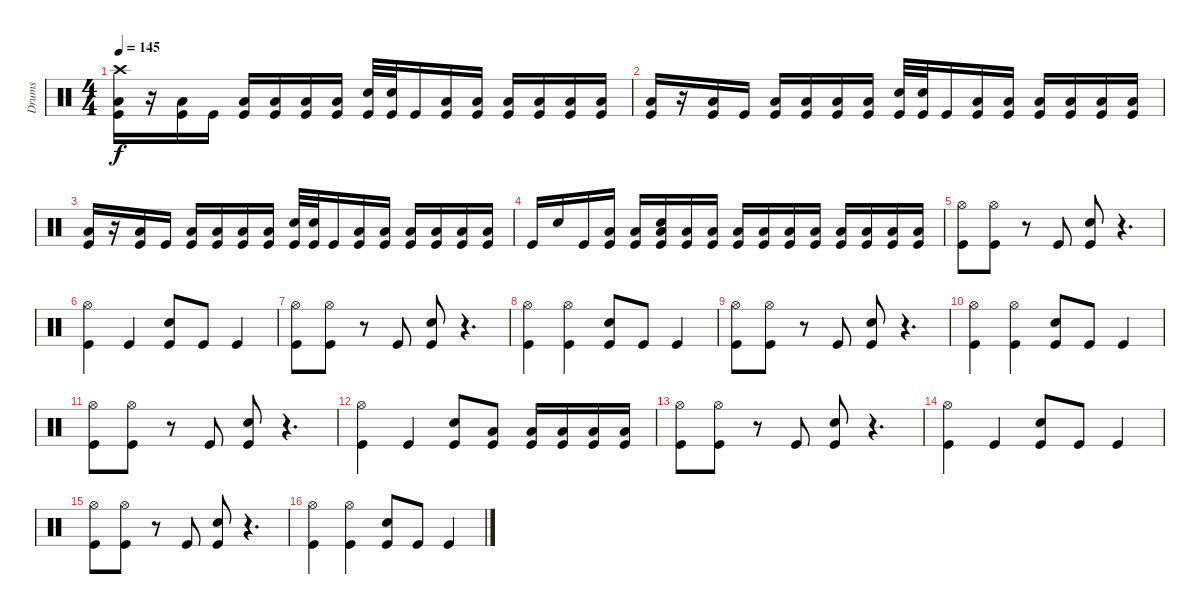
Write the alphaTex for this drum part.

\track ("Drums" "Drums") {instrument percussion}
\staff {score}
\articulation defaults
\ts (4 4)
\tempo 145
\clef neutral
\ks c
("Crash high (hit)" "Low Tom (hit)" "Kick (hit)").16{dy f} r.16 ("Low Tom (hit)" "Kick (hit)").16 "Kick (hit)".16 ("Low Tom (hit)" "Kick (hit)").16 ("Low Tom (hit)" "Kick (hit)").16 ("Low Tom (hit)" "Kick (hit)").16 ("Low Tom (hit)" "Kick (hit)").16 ("Electric Snare (hit)" "Kick (hit)").32 ("Electric Snare (hit)" "Kick (hit)").32 "Kick (hit)".16 ("Low Tom (hit)" "Kick (hit)").16 ("Low Tom (hit)" "Kick (hit)").16 ("Low Tom (hit)" "Kick (hit)").16 ("Low Tom (hit)" "Kick (hit)").16 ("Low Tom (hit)" "Kick (hit)").16 ("Low Tom (hit)" "Kick (hit)").16 |
("Low Tom (hit)" "Kick (hit)").16 r.16 ("Low Tom (hit)" "Kick (hit)").16 "Kick (hit)".16 ("Low Tom (hit)" "Kick (hit)").16 ("Low Tom (hit)" "Kick (hit)").16 ("Low Tom (hit)" "Kick (hit)").16 ("Low Tom (hit)" "Kick (hit)").16 ("Electric Snare (hit)" "Kick (hit)").32 ("Electric Snare (hit)" "Kick (hit)").32 "Kick (hit)".16 ("Low Tom (hit)" "Kick (hit)").16 ("Low Tom (hit)" "Kick (hit)").16 ("Low Tom (hit)" "Kick (hit)").16 ("Low Tom (hit)" "Kick (hit)").16 ("Low Tom (hit)" "Kick (hit)").16 ("Low Tom (hit)" "Kick (hit)").16 |
("Low Tom (hit)" "Kick (hit)").16 r.16 ("Low Tom (hit)" "Kick (hit)").16 "Kick (hit)".16 ("Low Tom (hit)" "Kick (hit)").16 ("Low Tom (hit)" "Kick (hit)").16 ("Low Tom (hit)" "Kick (hit)").16 ("Low Tom (hit)" "Kick (hit)").16 ("Electric Snare (hit)" "Kick (hit)").32 ("Electric Snare (hit)" "Kick (hit)").32 "Kick (hit)".16 ("Low Tom (hit)" "Kick (hit)").16 ("Low Tom (hit)" "Kick (hit)").16 ("Low Tom (hit)" "Kick (hit)").16 ("Low Tom (hit)" "Kick (hit)").16 ("Low Tom (hit)" "Kick (hit)").16 ("Low Tom (hit)" "Kick (hit)").16 |
"Kick (hit)".16 "Electric Snare (hit)".16 "Kick (hit)".16 ("Low Tom (hit)" "Kick (hit)").16 ("Low Tom (hit)" "Kick (hit)").16 ("Low Tom (hit)" "Electric Snare (hit)" "Kick (hit)").16 ("Low Tom (hit)" "Kick (hit)").16 ("Low Tom (hit)" "Kick (hit)").16 ("Low Tom (hit)" "Kick (hit)").16 ("Low Tom (hit)" "Kick (hit)").16 ("Low Tom (hit)" "Kick (hit)").16 ("Low Tom (hit)" "Kick (hit)").16 ("Low Tom (hit)" "Kick (hit)").16 ("Low Tom (hit)" "Kick (hit)").16 ("Low Tom (hit)" "Kick (hit)").16 ("Low Tom (hit)" "Kick (hit)").16 |
("Hi-Hat (open)" "Kick (hit)").8 ("Hi-Hat (open)" "Kick (hit)").8 r.8 "Kick (hit)".8 ("Electric Snare (hit)" "Kick (hit)").8 r.4{d} |
("Hi-Hat (open)" "Kick (hit)").4 "Kick (hit)".4 ("Electric Snare (hit)" "Kick (hit)").8 "Kick (hit)".8 "Kick (hit)".4 |
("Hi-Hat (open)" "Kick (hit)").8 ("Hi-Hat (open)" "Kick (hit)").8 r.8 "Kick (hit)".8 ("Electric Snare (hit)" "Kick (hit)").8 r.4{d} |
("Hi-Hat (open)" "Kick (hit)").4 ("Hi-Hat (open)" "Kick (hit)").4 ("Electric Snare (hit)" "Kick (hit)").8 "Kick (hit)".8 "Kick (hit)".4 |
("Hi-Hat (open)" "Kick (hit)").8 ("Hi-Hat (open)" "Kick (hit)").8 r.8 "Kick (hit)".8 ("Electric Snare (hit)" "Kick (hit)").8 r.4{d} |
("Hi-Hat (open)" "Kick (hit)").4 ("Hi-Hat (open)" "Kick (hit)").4 ("Electric Snare (hit)" "Kick (hit)").8 "Kick (hit)".8 "Kick (hit)".4 |
("Hi-Hat (open)" "Kick (hit)").8 ("Hi-Hat (open)" "Kick (hit)").8 r.8 "Kick (hit)".8 ("Electric Snare (hit)" "Kick (hit)").8 r.4{d} |
("Hi-Hat (open)" "Kick (hit)").4 "Kick (hit)".4 ("Electric Snare (hit)" "Kick (hit)").8 ("Low Tom (hit)" "Kick (hit)").8 ("Low Tom (hit)" "Kick (hit)").16 ("Low Tom (hit)" "Kick (hit)").16 ("Low Tom (hit)" "Kick (hit)").16 ("Low Tom (hit)" "Kick (hit)").16 |
("Hi-Hat (open)" "Kick (hit)").8 ("Hi-Hat (open)" "Kick (hit)").8 r.8 "Kick (hit)".8 ("Electric Snare (hit)" "Kick (hit)").8 r.4{d} |
("Hi-Hat (open)" "Kick (hit)").4 "Kick (hit)".4 ("Electric Snare (hit)" "Kick (hit)").8 "Kick (hit)".8 "Kick (hit)".4 |
("Hi-Hat (open)" "Kick (hit)").8 ("Hi-Hat (open)" "Kick (hit)").8 r.8 "Kick (hit)".8 ("Electric Snare (hit)" "Kick (hit)").8 r.4{d} |
("Hi-Hat (open)" "Kick (hit)").4 ("Hi-Hat (open)" "Kick (hit)").4 ("Electric Snare (hit)" "Kick (hit)").8 "Kick (hit)".8 "Kick (hit)".4
